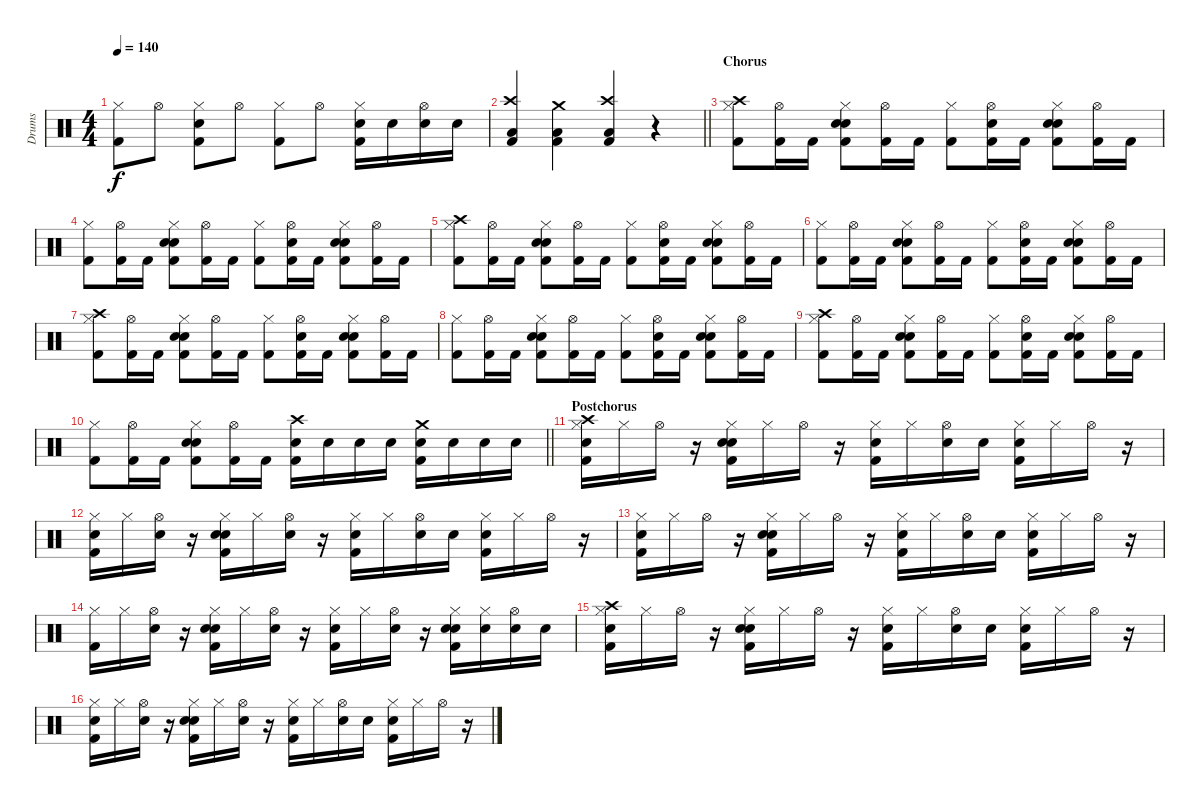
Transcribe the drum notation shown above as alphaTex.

\track ("Drums" "Drums") {instrument percussion}
\staff {score}
\articulation defaults
\ts (4 4)
\tempo 140
\clef neutral
\ks c
("Hi-Hat (closed)" "Kick (hit) 2").8{dy f} "Hi-Hat (open)".8 ("Hi-Hat (closed)" "Snare (hit) 2" "Kick (hit) 2").8 "Hi-Hat (open)".8 ("Hi-Hat (closed)" "Kick (hit) 2").8 "Hi-Hat (open)".8 ("Hi-Hat (closed)" "Snare (hit) 2" "Kick (hit) 2").16 "Snare (hit) 2".16 ("Hi-Hat (open)" "Snare (hit) 2").16 "Snare (hit) 2".16 |
\barLineRight lightlight
("Crash high (hit)" "Low Floor Tom (hit)" "Kick (hit) 2").4 ("Crash medium (hit)" "Low Floor Tom (hit)" "Kick (hit) 2").4 ("Crash high (hit)" "Low Floor Tom (hit)" "Kick (hit) 2").4 r.4 |
\section ("" "Chorus")
("Crash high (hit)" "Hi-Hat (closed)" "Kick (hit) 2").8 ("Hi-Hat (open)" "Kick (hit) 2").16 "Kick (hit) 2".16 ("Hi-Hat (closed)" "Hand Clap (hit)" "Snare (hit) 2" "Kick (hit) 2").8 ("Hi-Hat (open)" "Kick (hit) 2").16 "Kick (hit) 2".16 ("Hi-Hat (closed)" "Kick (hit) 2").8 ("Hi-Hat (open)" "Hand Clap (hit)" "Kick (hit) 2").16 "Kick (hit) 2".16 ("Hi-Hat (closed)" "Hand Clap (hit)" "Snare (hit) 2" "Kick (hit) 2").8 ("Hi-Hat (open)" "Kick (hit) 2").16 "Kick (hit) 2".16 |
("Hi-Hat (closed)" "Kick (hit) 2").8 ("Hi-Hat (open)" "Kick (hit) 2").16 "Kick (hit) 2".16 ("Hi-Hat (closed)" "Hand Clap (hit)" "Snare (hit) 2" "Kick (hit) 2").8 ("Hi-Hat (open)" "Kick (hit) 2").16 "Kick (hit) 2".16 ("Hi-Hat (closed)" "Kick (hit) 2").8 ("Hi-Hat (open)" "Hand Clap (hit)" "Kick (hit) 2").16 "Kick (hit) 2".16 ("Hi-Hat (closed)" "Hand Clap (hit)" "Snare (hit) 2" "Kick (hit) 2").8 ("Hi-Hat (open)" "Kick (hit) 2").16 "Kick (hit) 2".16 |
("Crash high (hit)" "Hi-Hat (closed)" "Kick (hit) 2").8 ("Hi-Hat (open)" "Kick (hit) 2").16 "Kick (hit) 2".16 ("Hi-Hat (closed)" "Hand Clap (hit)" "Snare (hit) 2" "Kick (hit) 2").8 ("Hi-Hat (open)" "Kick (hit) 2").16 "Kick (hit) 2".16 ("Hi-Hat (closed)" "Kick (hit) 2").8 ("Hi-Hat (open)" "Hand Clap (hit)" "Kick (hit) 2").16 "Kick (hit) 2".16 ("Hi-Hat (closed)" "Hand Clap (hit)" "Snare (hit) 2" "Kick (hit) 2").8 ("Hi-Hat (open)" "Kick (hit) 2").16 "Kick (hit) 2".16 |
("Hi-Hat (closed)" "Kick (hit) 2").8 ("Hi-Hat (open)" "Kick (hit) 2").16 "Kick (hit) 2".16 ("Hi-Hat (closed)" "Hand Clap (hit)" "Snare (hit) 2" "Kick (hit) 2").8 ("Hi-Hat (open)" "Kick (hit) 2").16 "Kick (hit) 2".16 ("Hi-Hat (closed)" "Kick (hit) 2").8 ("Hi-Hat (open)" "Hand Clap (hit)" "Kick (hit) 2").16 "Kick (hit) 2".16 ("Hi-Hat (closed)" "Hand Clap (hit)" "Snare (hit) 2" "Kick (hit) 2").8 ("Hi-Hat (open)" "Kick (hit) 2").16 "Kick (hit) 2".16 |
("Crash high (hit)" "Hi-Hat (closed)" "Kick (hit) 2").8 ("Hi-Hat (open)" "Kick (hit) 2").16 "Kick (hit) 2".16 ("Hi-Hat (closed)" "Hand Clap (hit)" "Snare (hit) 2" "Kick (hit) 2").8 ("Hi-Hat (open)" "Kick (hit) 2").16 "Kick (hit) 2".16 ("Hi-Hat (closed)" "Kick (hit) 2").8 ("Hi-Hat (open)" "Hand Clap (hit)" "Kick (hit) 2").16 "Kick (hit) 2".16 ("Hi-Hat (closed)" "Hand Clap (hit)" "Snare (hit) 2" "Kick (hit) 2").8 ("Hi-Hat (open)" "Kick (hit) 2").16 "Kick (hit) 2".16 |
("Hi-Hat (closed)" "Kick (hit) 2").8 ("Hi-Hat (open)" "Kick (hit) 2").16 "Kick (hit) 2".16 ("Hi-Hat (closed)" "Hand Clap (hit)" "Snare (hit) 2" "Kick (hit) 2").8 ("Hi-Hat (open)" "Kick (hit) 2").16 "Kick (hit) 2".16 ("Hi-Hat (closed)" "Kick (hit) 2").8 ("Hi-Hat (open)" "Hand Clap (hit)" "Kick (hit) 2").16 "Kick (hit) 2".16 ("Hi-Hat (closed)" "Hand Clap (hit)" "Snare (hit) 2" "Kick (hit) 2").8 ("Hi-Hat (open)" "Kick (hit) 2").16 "Kick (hit) 2".16 |
("Crash high (hit)" "Hi-Hat (closed)" "Kick (hit) 2").8 ("Hi-Hat (open)" "Kick (hit) 2").16 "Kick (hit) 2".16 ("Hi-Hat (closed)" "Hand Clap (hit)" "Snare (hit) 2" "Kick (hit) 2").8 ("Hi-Hat (open)" "Kick (hit) 2").16 "Kick (hit) 2".16 ("Hi-Hat (closed)" "Kick (hit) 2").8 ("Hi-Hat (open)" "Hand Clap (hit)" "Kick (hit) 2").16 "Kick (hit) 2".16 ("Hi-Hat (closed)" "Hand Clap (hit)" "Snare (hit) 2" "Kick (hit) 2").8 ("Hi-Hat (open)" "Kick (hit) 2").16 "Kick (hit) 2".16 |
\barLineRight lightlight
("Hi-Hat (closed)" "Kick (hit) 2").8 ("Hi-Hat (open)" "Kick (hit) 2").16 "Kick (hit) 2".16 ("Hi-Hat (closed)" "Hand Clap (hit)" "Snare (hit) 2" "Kick (hit) 2").8 ("Hi-Hat (open)" "Kick (hit) 2").16 "Kick (hit) 2".16 ("Crash high (hit)" "Snare (hit) 2" "Kick (hit) 2").16 "Snare (hit) 2".16 "Snare (hit) 2".16 "Snare (hit) 2".16 ("Crash medium (hit)" "Snare (hit) 2" "Kick (hit) 2").16 "Snare (hit) 2".16 "Snare (hit) 2".16 "Snare (hit) 2".16 |
\section ("" "Postchorus")
("Crash high (hit)" "Hi-Hat (closed)" "Hand Clap (hit)" "Kick (hit) 2").16 "Hi-Hat (closed)".16 "Hi-Hat (open)".16 r.16 ("Hi-Hat (closed)" "Hand Clap (hit)" "Snare (hit) 2" "Kick (hit) 2").16 "Hi-Hat (closed)".16 "Hi-Hat (open)".16 r.16 ("Hi-Hat (closed)" "Hand Clap (hit)" "Kick (hit) 2").16 "Hi-Hat (closed)".16 ("Hi-Hat (open)" "Hand Clap (hit)").16 "Hand Clap (hit)".16 ("Hi-Hat (closed)" "Snare (hit) 2" "Kick (hit) 2").16 "Hi-Hat (closed)".16 "Hi-Hat (open)".16 r.16 |
("Hi-Hat (closed)" "Hand Clap (hit)" "Kick (hit) 2").16 "Hi-Hat (closed)".16 ("Hi-Hat (open)" "Hand Clap (hit)").16 r.16 ("Hi-Hat (closed)" "Hand Clap (hit)" "Snare (hit) 2" "Kick (hit) 2").16 "Hi-Hat (closed)".16 ("Hi-Hat (open)" "Hand Clap (hit)").16 r.16 ("Hi-Hat (closed)" "Hand Clap (hit)" "Kick (hit) 2").16 "Hi-Hat (closed)".16 ("Hi-Hat (open)" "Hand Clap (hit)").16 "Hand Clap (hit)".16 ("Hi-Hat (closed)" "Snare (hit) 2" "Kick (hit) 2").16 "Hi-Hat (closed)".16 "Hi-Hat (open)".16 r.16 |
("Hi-Hat (closed)" "Hand Clap (hit)" "Kick (hit) 2").16 "Hi-Hat (closed)".16 "Hi-Hat (open)".16 r.16 ("Hi-Hat (closed)" "Hand Clap (hit)" "Snare (hit) 2" "Kick (hit) 2").16 "Hi-Hat (closed)".16 "Hi-Hat (open)".16 r.16 ("Hi-Hat (closed)" "Hand Clap (hit)" "Kick (hit) 2").16 "Hi-Hat (closed)".16 ("Hi-Hat (open)" "Hand Clap (hit)").16 "Hand Clap (hit)".16 ("Hi-Hat (closed)" "Snare (hit) 2" "Kick (hit) 2").16 "Hi-Hat (closed)".16 "Hi-Hat (open)".16 r.16 |
("Hi-Hat (closed)" "Kick (hit) 2").16 "Hi-Hat (closed)".16 ("Hi-Hat (open)" "Hand Clap (hit)").16 r.16 ("Hi-Hat (closed)" "Hand Clap (hit)" "Snare (hit) 2" "Kick (hit) 2").16 "Hi-Hat (closed)".16 ("Hi-Hat (open)" "Hand Clap (hit)").16 r.16 ("Hi-Hat (closed)" "Hand Clap (hit)" "Kick (hit) 2").16 "Hi-Hat (closed)".16 ("Hi-Hat (open)" "Hand Clap (hit)").16 r.16 ("Hi-Hat (closed)" "Hand Clap (hit)" "Snare (hit) 2" "Kick (hit) 2").16 ("Hi-Hat (closed)" "Snare (hit) 2").16 ("Hi-Hat (open)" "Snare (hit) 2").16 "Snare (hit) 2".16 |
("Crash high (hit)" "Hi-Hat (closed)" "Hand Clap (hit)" "Kick (hit) 2").16 "Hi-Hat (closed)".16 "Hi-Hat (open)".16 r.16 ("Hi-Hat (closed)" "Hand Clap (hit)" "Snare (hit) 2" "Kick (hit) 2").16 "Hi-Hat (closed)".16 "Hi-Hat (open)".16 r.16 ("Hi-Hat (closed)" "Hand Clap (hit)" "Kick (hit) 2").16 "Hi-Hat (closed)".16 ("Hi-Hat (open)" "Hand Clap (hit)").16 "Hand Clap (hit)".16 ("Hi-Hat (closed)" "Snare (hit) 2" "Kick (hit) 2").16 "Hi-Hat (closed)".16 "Hi-Hat (open)".16 r.16 |
("Hi-Hat (closed)" "Hand Clap (hit)" "Kick (hit) 2").16 "Hi-Hat (closed)".16 ("Hi-Hat (open)" "Hand Clap (hit)").16 r.16 ("Hi-Hat (closed)" "Hand Clap (hit)" "Snare (hit) 2" "Kick (hit) 2").16 "Hi-Hat (closed)".16 ("Hi-Hat (open)" "Hand Clap (hit)").16 r.16 ("Hi-Hat (closed)" "Hand Clap (hit)" "Kick (hit) 2").16 "Hi-Hat (closed)".16 ("Hi-Hat (open)" "Hand Clap (hit)").16 "Hand Clap (hit)".16 ("Hi-Hat (closed)" "Snare (hit) 2" "Kick (hit) 2").16 "Hi-Hat (closed)".16 "Hi-Hat (open)".16 r.16
